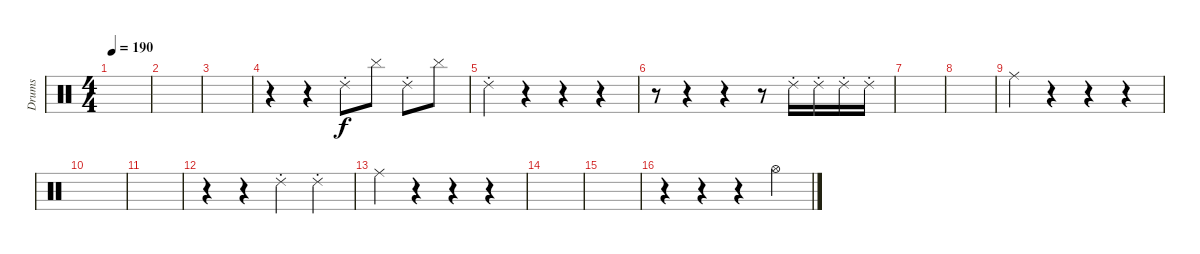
\track ("Drums" "Drums") {instrument percussion}
\staff {score}
\articulation defaults
\ts (4 4)
\tempo 190
\clef neutral
\ks c
|
|
|
r.4 r.4 "Ride (choke) 2".8 "Cymbal (hit)".8 "Ride (choke) 2".8 "Cymbal (hit)".8 |
"Ride (choke) 2".4 r.4 r.4 r.4 |
r.8 r.4 r.4 r.8 "Ride (choke) 2".16 "Ride (choke) 2".16 "Ride (choke) 2".16 "Ride (choke) 2".16 |
|
|
"Ride (middle)".4 r.4 r.4 r.4 |
|
|
r.4 r.4 "Ride (choke) 2".4 "Ride (choke) 2".4 |
"Ride (middle)".4 r.4 r.4 r.4 |
|
|
r.4 r.4 r.4 "Hi-Hat (open)".4
